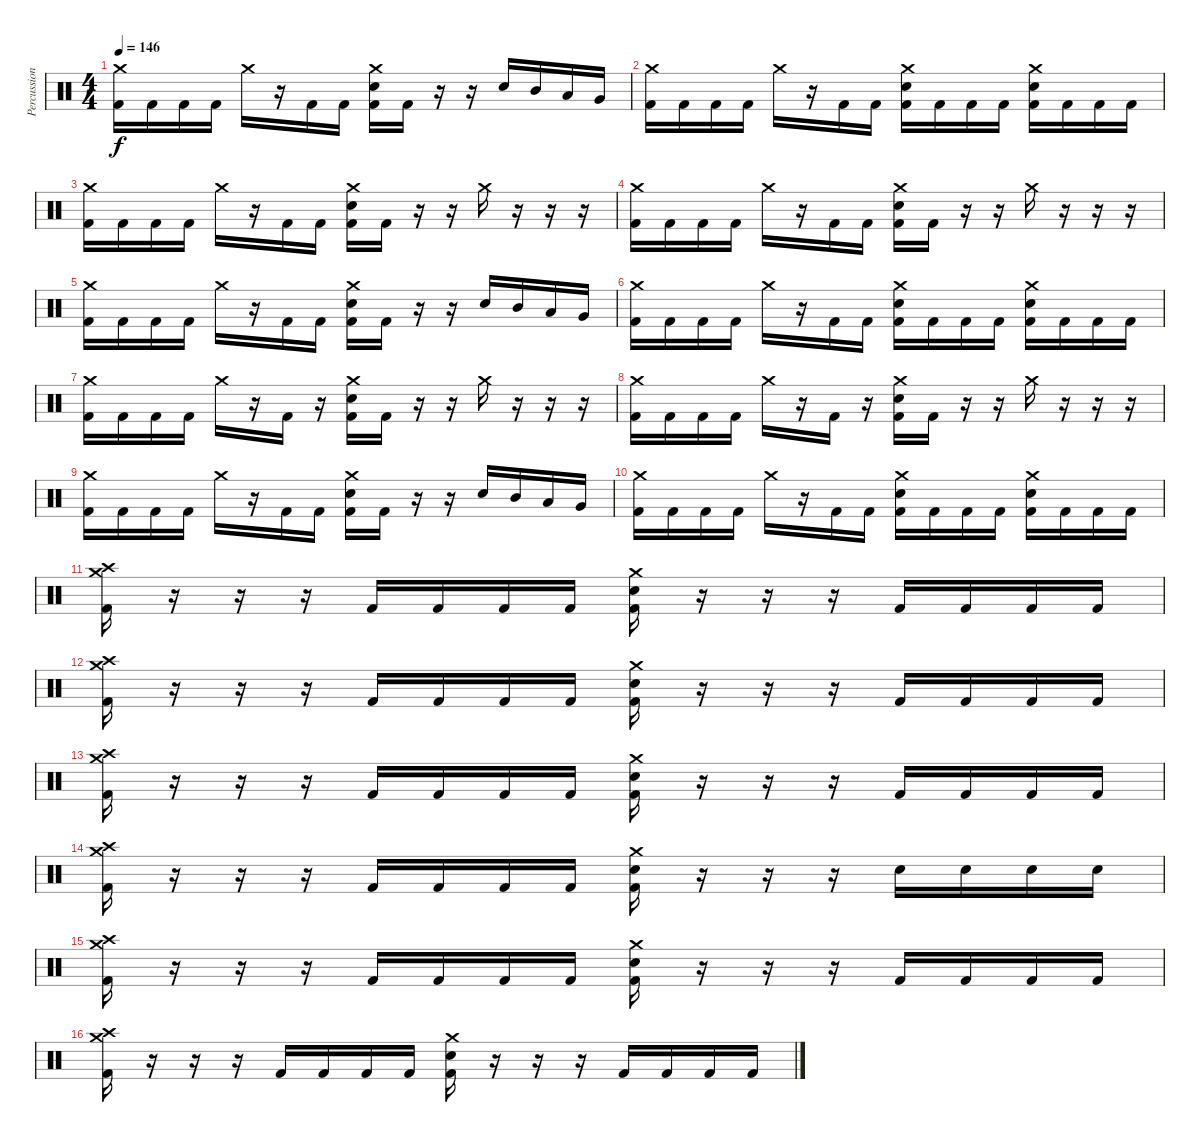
\track ("Percussion" "Percussion") {instrument percussion}
\staff {score}
\articulation defaults
\ts (4 4)
\tempo 146
\clef neutral
\ks c
("Crash medium (hit)" "Kick (hit) 2").16{dy f volume 16} "Kick (hit) 2".16 "Kick (hit) 2".16 "Kick (hit) 2".16 "Crash medium (hit)".16 r.16 "Kick (hit) 2".16 "Kick (hit) 2".16 ("Crash medium (hit)" "Snare (hit) 2" "Kick (hit) 2").16 "Kick (hit) 2".16 r.16 r.16 "Snare (hit) 2".16 "Mid Tom (hit)".16 "Low Tom (hit)".16 "Very Low Tom (hit)".16 |
("Crash medium (hit)" "Kick (hit) 2").16{volume 16} "Kick (hit) 2".16 "Kick (hit) 2".16 "Kick (hit) 2".16 "Crash medium (hit)".16 r.16 "Kick (hit) 2".16 "Kick (hit) 2".16 ("Crash medium (hit)" "Snare (hit) 2" "Kick (hit) 2").16 "Kick (hit) 2".16 "Kick (hit) 2".16 "Kick (hit) 2".16 ("Crash medium (hit)" "Snare (hit) 2" "Kick (hit) 2").16 "Kick (hit) 2".16 "Kick (hit) 2".16 "Kick (hit) 2".16 |
("Crash medium (hit)" "Kick (hit) 2").16{volume 16} "Kick (hit) 2".16 "Kick (hit) 2".16 "Kick (hit) 2".16 "Crash medium (hit)".16 r.16 "Kick (hit) 2".16 "Kick (hit) 2".16 ("Crash medium (hit)" "Snare (hit) 2" "Kick (hit) 2").16 "Kick (hit) 2".16 r.16 r.16 "Crash medium (hit)".16 r.16 r.16 r.16 |
("Crash medium (hit)" "Kick (hit) 2").16{volume 16} "Kick (hit) 2".16 "Kick (hit) 2".16 "Kick (hit) 2".16 "Crash medium (hit)".16 r.16 "Kick (hit) 2".16 "Kick (hit) 2".16 ("Crash medium (hit)" "Snare (hit) 2" "Kick (hit) 2").16 "Kick (hit) 2".16 r.16 r.16 "Crash medium (hit)".16 r.16 r.16 r.16 |
("Crash medium (hit)" "Kick (hit) 2").16{volume 16} "Kick (hit) 2".16 "Kick (hit) 2".16 "Kick (hit) 2".16 "Crash medium (hit)".16 r.16 "Kick (hit) 2".16 "Kick (hit) 2".16 ("Crash medium (hit)" "Snare (hit) 2" "Kick (hit) 2").16 "Kick (hit) 2".16 r.16 r.16 "Snare (hit) 2".16 "Mid Tom (hit)".16 "Low Tom (hit)".16 "Very Low Tom (hit)".16 |
("Crash medium (hit)" "Kick (hit) 2").16{volume 16} "Kick (hit) 2".16 "Kick (hit) 2".16 "Kick (hit) 2".16 "Crash medium (hit)".16 r.16 "Kick (hit) 2".16 "Kick (hit) 2".16 ("Crash medium (hit)" "Snare (hit) 2" "Kick (hit) 2").16 "Kick (hit) 2".16 "Kick (hit) 2".16 "Kick (hit) 2".16 ("Crash medium (hit)" "Snare (hit) 2" "Kick (hit) 2").16 "Kick (hit) 2".16 "Kick (hit) 2".16 "Kick (hit) 2".16 |
("Crash medium (hit)" "Kick (hit) 2").16{volume 16} "Kick (hit) 2".16 "Kick (hit) 2".16 "Kick (hit) 2".16 "Crash medium (hit)".16 r.16 "Kick (hit) 2".16 r.16 ("Crash medium (hit)" "Snare (hit) 2" "Kick (hit) 2").16 "Kick (hit) 2".16 r.16 r.16 "Crash medium (hit)".16 r.16 r.16 r.16 |
("Crash medium (hit)" "Kick (hit) 2").16{volume 16} "Kick (hit) 2".16 "Kick (hit) 2".16 "Kick (hit) 2".16 "Crash medium (hit)".16 r.16 "Kick (hit) 2".16 r.16 ("Crash medium (hit)" "Snare (hit) 2" "Kick (hit) 2").16 "Kick (hit) 2".16 r.16 r.16 "Crash medium (hit)".16 r.16 r.16 r.16 |
("Crash medium (hit)" "Kick (hit) 2").16{volume 16} "Kick (hit) 2".16 "Kick (hit) 2".16 "Kick (hit) 2".16 "Crash medium (hit)".16 r.16 "Kick (hit) 2".16 "Kick (hit) 2".16 ("Crash medium (hit)" "Snare (hit) 2" "Kick (hit) 2").16 "Kick (hit) 2".16 r.16 r.16 "Snare (hit) 2".16 "Mid Tom (hit)".16 "Low Tom (hit)".16 "Very Low Tom (hit)".16 |
("Crash medium (hit)" "Kick (hit) 2").16{volume 16} "Kick (hit) 2".16 "Kick (hit) 2".16 "Kick (hit) 2".16 "Crash medium (hit)".16 r.16 "Kick (hit) 2".16 "Kick (hit) 2".16 ("Crash medium (hit)" "Snare (hit) 2" "Kick (hit) 2").16 "Kick (hit) 2".16 "Kick (hit) 2".16 "Kick (hit) 2".16 ("Crash medium (hit)" "Snare (hit) 2" "Kick (hit) 2").16 "Kick (hit) 2".16 "Kick (hit) 2".16 "Kick (hit) 2".16 |
("Crash high (hit)" "Crash medium (hit)" "Kick (hit) 2").16 r.16 r.16 r.16 "Kick (hit) 2".16 "Kick (hit) 2".16 "Kick (hit) 2".16 "Kick (hit) 2".16 ("Crash medium (hit)" "Snare (hit) 2" "Kick (hit) 2").16 r.16 r.16 r.16 "Kick (hit) 2".16 "Kick (hit) 2".16 "Kick (hit) 2".16 "Kick (hit) 2".16 |
("Crash high (hit)" "Crash medium (hit)" "Kick (hit) 2").16 r.16 r.16 r.16 "Kick (hit) 2".16 "Kick (hit) 2".16 "Kick (hit) 2".16 "Kick (hit) 2".16 ("Crash medium (hit)" "Snare (hit) 2" "Kick (hit) 2").16 r.16 r.16 r.16 "Kick (hit) 2".16 "Kick (hit) 2".16 "Kick (hit) 2".16 "Kick (hit) 2".16 |
("Crash high (hit)" "Crash medium (hit)" "Kick (hit) 2").16 r.16 r.16 r.16 "Kick (hit) 2".16 "Kick (hit) 2".16 "Kick (hit) 2".16 "Kick (hit) 2".16 ("Crash medium (hit)" "Snare (hit) 2" "Kick (hit) 2").16 r.16 r.16 r.16 "Kick (hit) 2".16 "Kick (hit) 2".16 "Kick (hit) 2".16 "Kick (hit) 2".16 |
("Crash high (hit)" "Crash medium (hit)" "Kick (hit) 2").16 r.16 r.16 r.16 "Kick (hit) 2".16 "Kick (hit) 2".16 "Kick (hit) 2".16 "Kick (hit) 2".16 ("Crash medium (hit)" "Snare (hit) 2" "Kick (hit) 2").16 r.16 r.16 r.16 "Snare (hit) 2".16 "Snare (hit) 2".16 "Snare (hit) 2".16 "Snare (hit) 2".16 |
("Crash high (hit)" "Crash medium (hit)" "Kick (hit) 2").16 r.16 r.16 r.16 "Kick (hit) 2".16 "Kick (hit) 2".16 "Kick (hit) 2".16 "Kick (hit) 2".16 ("Crash medium (hit)" "Snare (hit) 2" "Kick (hit) 2").16 r.16 r.16 r.16 "Kick (hit) 2".16 "Kick (hit) 2".16 "Kick (hit) 2".16 "Kick (hit) 2".16 |
("Crash high (hit)" "Crash medium (hit)" "Kick (hit) 2").16 r.16 r.16 r.16 "Kick (hit) 2".16 "Kick (hit) 2".16 "Kick (hit) 2".16 "Kick (hit) 2".16 ("Crash medium (hit)" "Snare (hit) 2" "Kick (hit) 2").16 r.16 r.16 r.16 "Kick (hit) 2".16 "Kick (hit) 2".16 "Kick (hit) 2".16 "Kick (hit) 2".16
